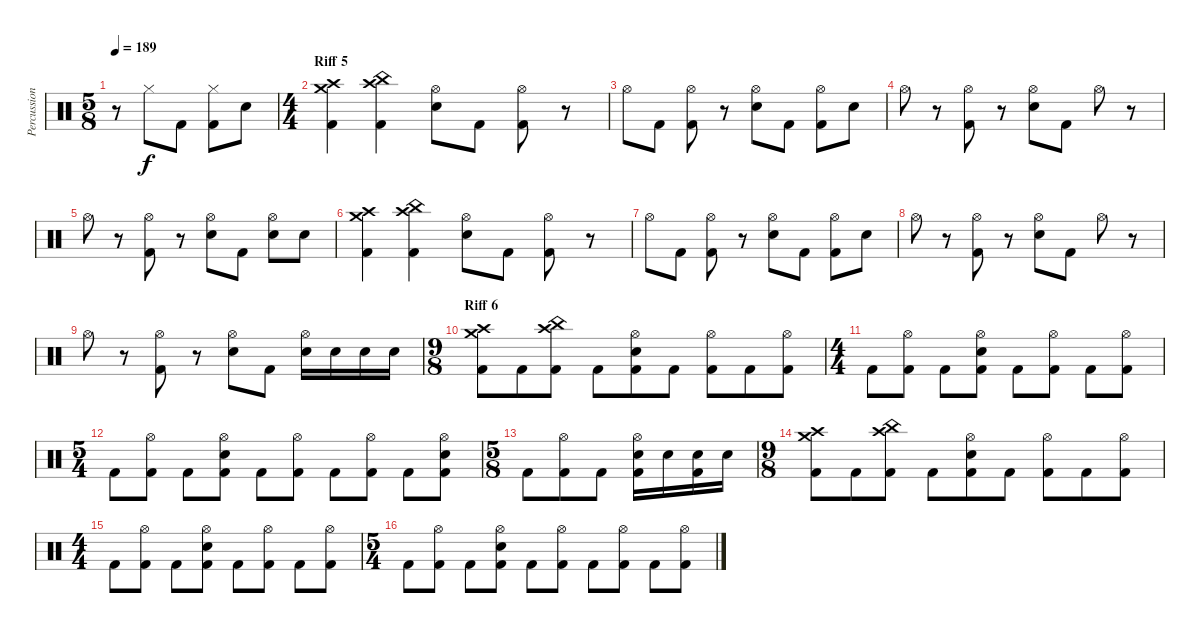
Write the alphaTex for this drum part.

\track ("Percussion" "Percussion") {instrument percussion}
\staff {score}
\articulation defaults
\ts (5 8)
\tempo 189
\clef neutral
\ks c
r.8{dy f} "Hi-Hat (closed)".8 "Kick (hit) 2".8 ("Hi-Hat (closed)" "Kick (hit) 2").8 "Electric Snare (hit)".8 |
\ts (4 4)
\section ("" "Riff 5")
("Crash medium (hit)" "Crash high (hit)" "Kick (hit) 2").4 ("China (hit)" "Crash high (hit)" "Kick (hit) 2").4 ("Hi-Hat (open)" "Electric Snare (hit)").8 "Kick (hit) 2".8 ("Hi-Hat (open)" "Kick (hit) 2").8 r.8 |
"Hi-Hat (open)".8 "Kick (hit) 2".8 ("Hi-Hat (open)" "Kick (hit) 2").8 r.8 ("Hi-Hat (open)" "Electric Snare (hit)").8 "Kick (hit) 2".8 ("Hi-Hat (open)" "Kick (hit) 2").8 "Electric Snare (hit)".8 |
"Hi-Hat (open)".8 r.8 ("Hi-Hat (open)" "Kick (hit) 2").8 r.8 ("Hi-Hat (open)" "Electric Snare (hit)").8 "Kick (hit) 2".8 "Hi-Hat (open)".8 r.8 |
"Hi-Hat (open)".8 r.8 ("Hi-Hat (open)" "Kick (hit) 2").8 r.8 ("Hi-Hat (open)" "Electric Snare (hit)").8 "Kick (hit) 2".8 ("Hi-Hat (open)" "Electric Snare (hit)").8 "Electric Snare (hit)".8 |
("Crash medium (hit)" "Crash high (hit)" "Kick (hit) 2").4 ("China (hit)" "Crash high (hit)" "Kick (hit) 2").4 ("Hi-Hat (open)" "Electric Snare (hit)").8 "Kick (hit) 2".8 ("Hi-Hat (open)" "Kick (hit) 2").8 r.8 |
"Hi-Hat (open)".8 "Kick (hit) 2".8 ("Hi-Hat (open)" "Kick (hit) 2").8 r.8 ("Hi-Hat (open)" "Electric Snare (hit)").8 "Kick (hit) 2".8 ("Hi-Hat (open)" "Kick (hit) 2").8 "Electric Snare (hit)".8 |
"Hi-Hat (open)".8 r.8 ("Hi-Hat (open)" "Kick (hit) 2").8 r.8 ("Hi-Hat (open)" "Electric Snare (hit)").8 "Kick (hit) 2".8 "Hi-Hat (open)".8 r.8 |
"Hi-Hat (open)".8 r.8 ("Hi-Hat (open)" "Kick (hit) 2").8 r.8 ("Hi-Hat (open)" "Electric Snare (hit)").8 "Kick (hit) 2".8 ("Hi-Hat (open)" "Electric Snare (hit)").16 "Electric Snare (hit)".16 "Electric Snare (hit)".16 "Electric Snare (hit)".16 |
\ts (9 8)
\section ("" "Riff 6")
("Crash medium (hit)" "Crash high (hit)" "Kick (hit) 2").8 "Kick (hit) 2".8 ("China (hit)" "Crash high (hit)" "Kick (hit) 2").8 "Kick (hit) 2".8 ("Hi-Hat (open)" "Electric Snare (hit)" "Kick (hit) 2").8 "Kick (hit) 2".8 ("Hi-Hat (open)" "Kick (hit) 2").8 "Kick (hit) 2".8 ("Hi-Hat (open)" "Kick (hit) 2").8 |
\ts (4 4)
"Kick (hit) 2".8 ("Hi-Hat (open)" "Kick (hit) 2").8 "Kick (hit) 2".8 ("Hi-Hat (open)" "Electric Snare (hit)" "Kick (hit) 2").8 "Kick (hit) 2".8 ("Hi-Hat (open)" "Kick (hit) 2").8 "Kick (hit) 2".8 ("Hi-Hat (open)" "Kick (hit) 2").8 |
\ts (5 4)
"Kick (hit) 2".8 ("Hi-Hat (open)" "Kick (hit) 2").8 "Kick (hit) 2".8 ("Hi-Hat (open)" "Electric Snare (hit)" "Kick (hit) 2").8 "Kick (hit) 2".8 ("Hi-Hat (open)" "Kick (hit) 2").8 "Kick (hit) 2".8 ("Hi-Hat (open)" "Kick (hit) 2").8 "Kick (hit) 2".8 ("Hi-Hat (open)" "Electric Snare (hit)" "Kick (hit) 2").8 |
\ts (5 8)
"Kick (hit) 2".8 ("Hi-Hat (open)" "Kick (hit) 2").8 "Kick (hit) 2".8 ("Hi-Hat (open)" "Electric Snare (hit)" "Kick (hit) 2").16 "Electric Snare (hit)".16 ("Electric Snare (hit)" "Kick (hit) 2").16 "Electric Snare (hit)".16 |
\ts (9 8)
("Crash medium (hit)" "Crash high (hit)" "Kick (hit) 2").8 "Kick (hit) 2".8 ("China (hit)" "Crash high (hit)" "Kick (hit) 2").8 "Kick (hit) 2".8 ("Hi-Hat (open)" "Electric Snare (hit)" "Kick (hit) 2").8 "Kick (hit) 2".8 ("Hi-Hat (open)" "Kick (hit) 2").8 "Kick (hit) 2".8 ("Hi-Hat (open)" "Kick (hit) 2").8 |
\ts (4 4)
"Kick (hit) 2".8 ("Hi-Hat (open)" "Kick (hit) 2").8 "Kick (hit) 2".8 ("Hi-Hat (open)" "Electric Snare (hit)" "Kick (hit) 2").8 "Kick (hit) 2".8 ("Hi-Hat (open)" "Kick (hit) 2").8 "Kick (hit) 2".8 ("Hi-Hat (open)" "Kick (hit) 2").8 |
\ts (5 4)
"Kick (hit) 2".8 ("Hi-Hat (open)" "Kick (hit) 2").8 "Kick (hit) 2".8 ("Hi-Hat (open)" "Electric Snare (hit)" "Kick (hit) 2").8 "Kick (hit) 2".8 ("Hi-Hat (open)" "Kick (hit) 2").8 "Kick (hit) 2".8 ("Hi-Hat (open)" "Kick (hit) 2").8 "Kick (hit) 2".8 ("Hi-Hat (open)" "Kick (hit) 2").8
